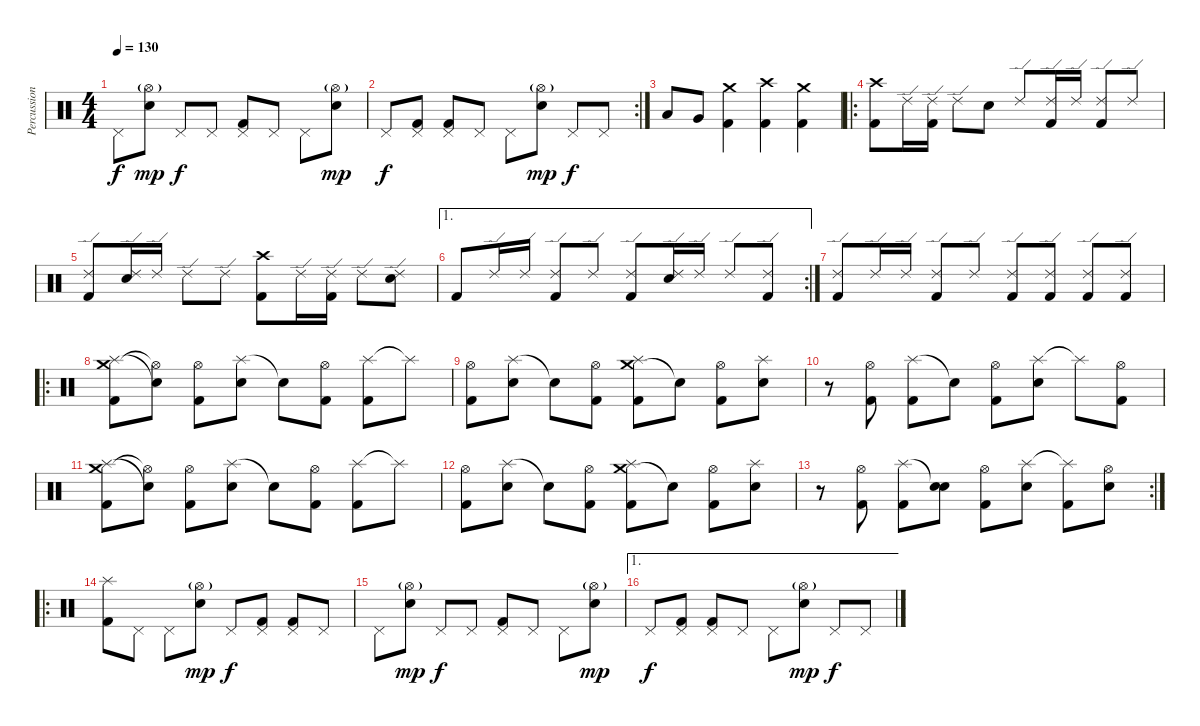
\track ("Percussion" "Percussion") {instrument percussion}
\staff {score}
\articulation defaults
\ts (4 4)
\tempo 130
\clef neutral
\ks c "Pedal Hi-Hat (hit)".8{dy f}
("Hi-Hat (open)"{g} "Electric Snare (hit)").8{dy mp} "Pedal Hi-Hat (hit)".8{dy f} "Pedal Hi-Hat (hit)".8 ("Pedal Hi-Hat (hit)" "Kick (hit) 2").8 "Pedal Hi-Hat (hit)".8 "Pedal Hi-Hat (hit)".8 ("Hi-Hat (open)"{g} "Electric Snare (hit)").8{dy mp} |
\rc 2 "Pedal Hi-Hat (hit)".8{dy f}
("Pedal Hi-Hat (hit)" "Kick (hit) 2").8 ("Pedal Hi-Hat (hit)" "Kick (hit) 2").8 "Pedal Hi-Hat (hit)".8 "Pedal Hi-Hat (hit)".8 ("Hi-Hat (open)"{g} "Electric Snare (hit)").8{dy mp} "Pedal Hi-Hat (hit)".8{dy f} "Pedal Hi-Hat (hit)".8 |
"Low Tom (hit)".8 "Very Low Tom (hit)".8 ("Crash medium (hit)" "Kick (hit) 2").4 ("Crash high (hit)" "Kick (hit) 2").4 ("Crash medium (hit)" "Kick (hit) 2").4 |
\ro
("Crash high (hit)" "Kick (hit) 2").8 "Ride (edge) 2".16 ("Ride (edge) 2" "Kick (hit) 2").16 "Ride (edge) 2".8 "Electric Snare (hit)".8 "Ride (edge) 2".8 ("Ride (edge) 2" "Kick (hit) 2").16 "Ride (edge) 2".16 ("Ride (edge) 2" "Kick (hit) 2").8 "Ride (edge) 2".8 |
("Ride (edge) 2" "Kick (hit) 2").8 ("Ride (edge) 2" "Electric Snare (hit)").16 "Ride (edge) 2".16 "Ride (edge) 2".8 "Ride (edge) 2".8 ("Crash high (hit)" "Kick (hit) 2").8 "Ride (edge) 2".16 ("Ride (edge) 2" "Kick (hit) 2").16 "Ride (edge) 2".8 ("Ride (edge) 2" "Electric Snare (hit)").8 |
\ae 1
\rc 2 "Kick (hit) 2".8 "Ride (edge) 2".16 "Ride (edge) 2".16
("Ride (edge) 2" "Kick (hit) 2").8 "Ride (edge) 2".8 ("Ride (edge) 2" "Kick (hit) 2").8 ("Ride (edge) 2" "Electric Snare (hit)").16 "Ride (edge) 2".16 "Ride (edge) 2".8 ("Ride (edge) 2" "Kick (hit) 2").8 |
("Ride (edge) 2" "Kick (hit) 2").8 "Ride (edge) 2".16 "Ride (edge) 2".16 ("Ride (edge) 2" "Kick (hit) 2").8 "Ride (edge) 2".8 ("Ride (edge) 2" "Kick (hit) 2").8 ("Ride (edge) 2" "Kick (hit) 2").8 ("Ride (edge) 2" "Kick (hit) 2").8 ("Ride (edge) 2" "Kick (hit) 2").8 |
\ro
("Crash medium (hit)" "Splash (hit)" "Kick (hit) 2").8 ("Hi-Hat (open)"{t} "Snare (hit)"{t}).8 ("Hi-Hat (open)" "Kick (hit) 2").8 ("Splash (hit)" "Electric Snare (hit)").8 "Snare (hit)"{t}.8 ("Hi-Hat (open)" "Kick (hit) 2").8 ("Splash (hit)" "Kick (hit) 2").8 "Splash (hit)"{t}.8 |
("Hi-Hat (open)" "Kick (hit) 2").8 ("Splash (hit)" "Electric Snare (hit)").8 "Snare (hit)"{t}.8 ("Hi-Hat (open)" "Kick (hit) 2").8 ("Crash medium (hit)" "Splash (hit)" "Kick (hit) 2").8 "Snare (hit)"{t}.8 ("Hi-Hat (open)" "Kick (hit) 2").8 ("Splash (hit)" "Electric Snare (hit)").8 |
r.8 ("Hi-Hat (open)" "Kick (hit) 2").8 ("Splash (hit)" "Kick (hit) 2").8 "Snare (hit)"{t}.8 ("Hi-Hat (open)" "Kick (hit) 2").8 ("Splash (hit)" "Electric Snare (hit)").8 "Splash (hit)"{t}.8 ("Hi-Hat (open)" "Kick (hit) 2").8 |
("Crash medium (hit)" "Splash (hit)" "Kick (hit) 2").8 ("Hi-Hat (open)"{t} "Snare (hit)"{t}).8 ("Hi-Hat (open)" "Kick (hit) 2").8 ("Splash (hit)" "Electric Snare (hit)").8 "Snare (hit)"{t}.8 ("Hi-Hat (open)" "Kick (hit) 2").8 ("Splash (hit)" "Kick (hit) 2").8 "Splash (hit)"{t}.8 |
("Hi-Hat (open)" "Kick (hit) 2").8 ("Splash (hit)" "Electric Snare (hit)").8 "Snare (hit)"{t}.8 ("Hi-Hat (open)" "Kick (hit) 2").8 ("Crash medium (hit)" "Splash (hit)" "Kick (hit) 2").8 "Snare (hit)"{t}.8 ("Hi-Hat (open)" "Kick (hit) 2").8 ("Splash (hit)" "Electric Snare (hit)").8 |
\rc 2
r.8 ("Hi-Hat (open)" "Kick (hit) 2").8 ("Splash (hit)" "Kick (hit) 2").8 ("Snare (hit)"{t} "Electric Snare (hit)").8 ("Hi-Hat (open)" "Kick (hit) 2").8 ("Splash (hit)" "Electric Snare (hit)").8 ("Splash (hit)"{t} "Kick (hit) 2").8 ("Hi-Hat (open)" "Electric Snare (hit)").8 |
\ro
("Splash (hit)" "Kick (hit) 2").8 "Pedal Hi-Hat (hit)".8 "Pedal Hi-Hat (hit)".8 ("Hi-Hat (open)"{g} "Electric Snare (hit)").8{dy mp} "Pedal Hi-Hat (hit)".8{dy f} ("Pedal Hi-Hat (hit)" "Kick (hit) 2").8 ("Pedal Hi-Hat (hit)" "Kick (hit) 2").8 "Pedal Hi-Hat (hit)".8 |
"Pedal Hi-Hat (hit)".8 ("Hi-Hat (open)"{g} "Electric Snare (hit)").8{dy mp} "Pedal Hi-Hat (hit)".8{dy f} "Pedal Hi-Hat (hit)".8 ("Pedal Hi-Hat (hit)" "Kick (hit) 2").8 "Pedal Hi-Hat (hit)".8 "Pedal Hi-Hat (hit)".8 ("Hi-Hat (open)"{g} "Electric Snare (hit)").8{dy mp} |
\ae 1 "Pedal Hi-Hat (hit)".8{dy f}
("Pedal Hi-Hat (hit)" "Kick (hit) 2").8 ("Pedal Hi-Hat (hit)" "Kick (hit) 2").8 "Pedal Hi-Hat (hit)".8 "Pedal Hi-Hat (hit)".8 ("Hi-Hat (open)"{g} "Electric Snare (hit)").8{dy mp} "Pedal Hi-Hat (hit)".8{dy f} "Pedal Hi-Hat (hit)".8
